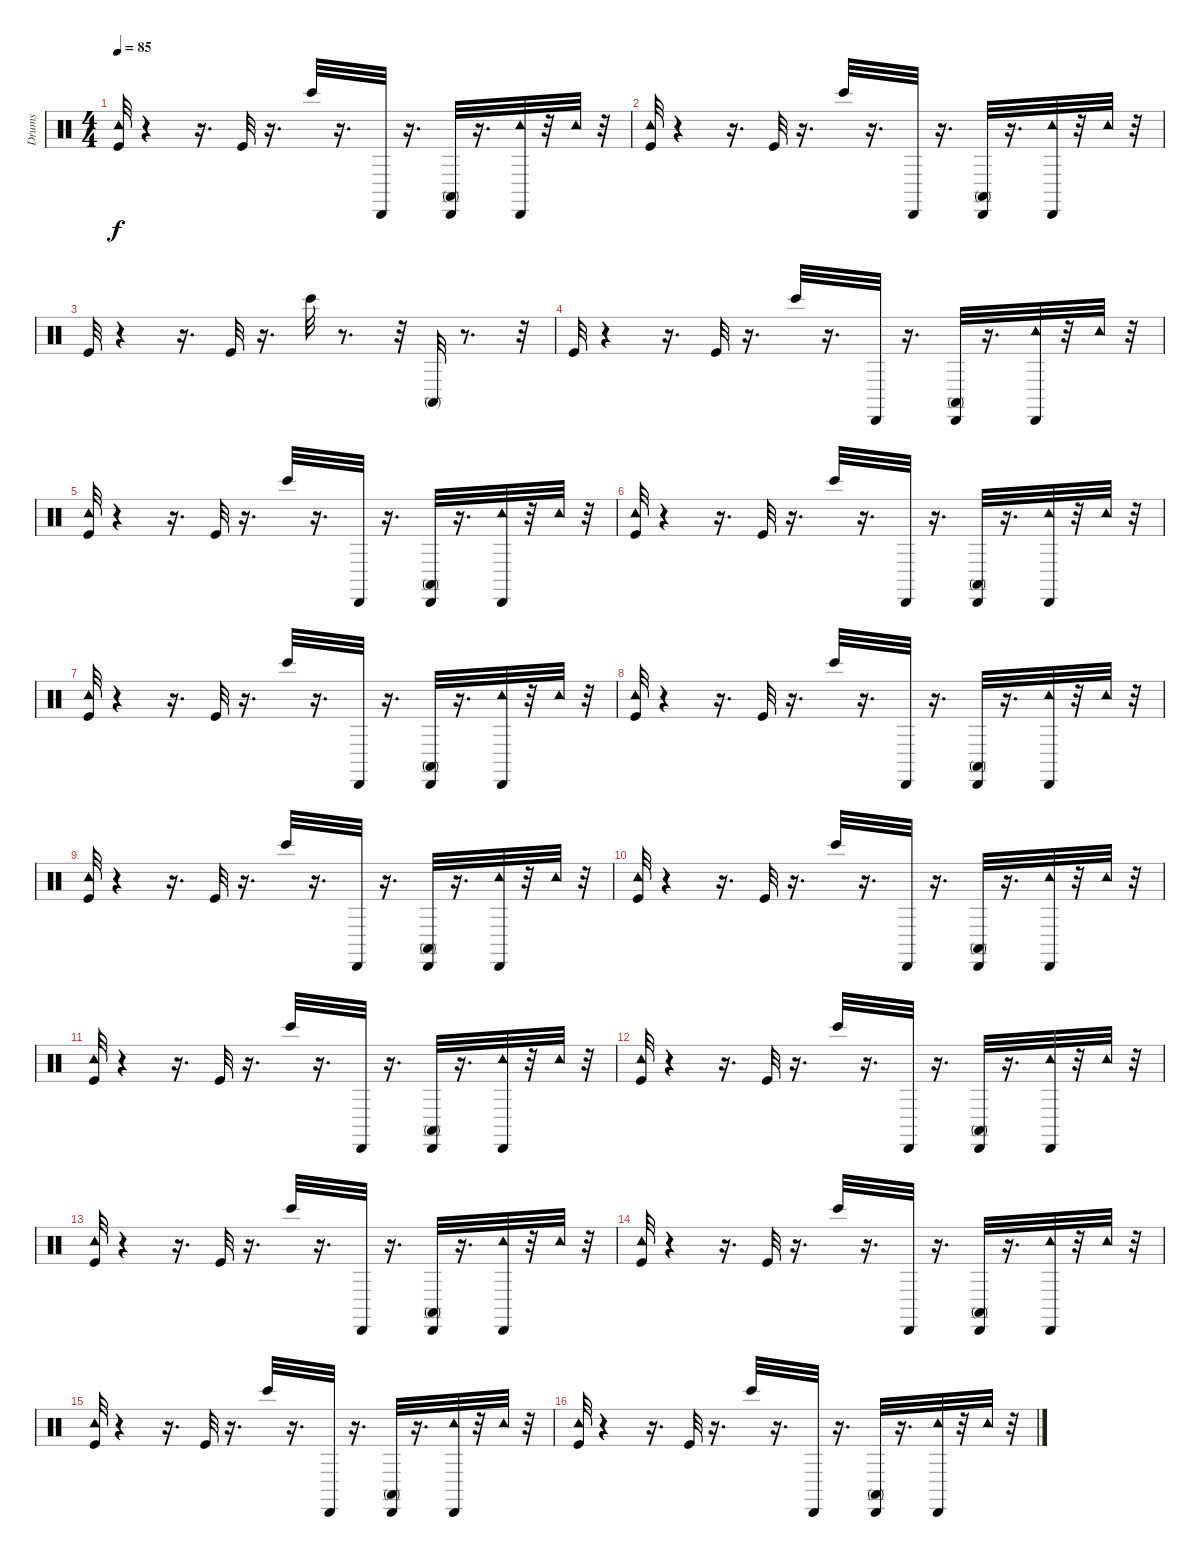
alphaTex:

\track ("Drums" "Drums") {instrument percussion}
\staff {score}
\articulation defaults
\ts (4 4)
\tempo 85
\clef neutral
\ks c
("Kick (hit)" "Tambourine (hit)").32{dy f} r.4 r.16{d} "Kick (hit)".32 r.16{d} "Bongo High (hit)".32 r.16{d} "Cabasa (hit)".32 r.16{d} ("Cabasa (hit)" "Conga high (mute)").32 r.16{d} ("Cabasa (hit)" "Tambourine (hit)").32 r.32 "Tambourine (hit)".32 r.32 |
("Kick (hit)" "Tambourine (hit)").32 r.4 r.16{d} "Kick (hit)".32 r.16{d} "Bongo High (hit)".32 r.16{d} "Cabasa (hit)".32 r.16{d} ("Cabasa (hit)" "Conga high (mute)").32 r.16{d} ("Cabasa (hit)" "Tambourine (hit)").32 r.32 "Tambourine (hit)".32 r.32 |
"Kick (hit)".32 r.4 r.16{d} "Kick (hit)".32 r.16{d} "Bongo High (hit)".32 r.8{d} r.32 "Conga high (mute)".32 r.8{d} r.32 |
"Kick (hit)".32 r.4 r.16{d} "Kick (hit)".32 r.16{d} "Bongo High (hit)".32 r.16{d} "Cabasa (hit)".32 r.16{d} ("Cabasa (hit)" "Conga high (mute)").32 r.16{d} ("Cabasa (hit)" "Tambourine (hit)").32 r.32 "Tambourine (hit)".32 r.32 |
("Kick (hit)" "Tambourine (hit)").32 r.4 r.16{d} "Kick (hit)".32 r.16{d} "Bongo High (hit)".32 r.16{d} "Cabasa (hit)".32 r.16{d} ("Cabasa (hit)" "Conga high (mute)").32 r.16{d} ("Cabasa (hit)" "Tambourine (hit)").32 r.32 "Tambourine (hit)".32 r.32 |
("Kick (hit)" "Tambourine (hit)").32 r.4 r.16{d} "Kick (hit)".32 r.16{d} "Bongo High (hit)".32 r.16{d} "Cabasa (hit)".32 r.16{d} ("Cabasa (hit)" "Conga high (mute)").32 r.16{d} ("Cabasa (hit)" "Tambourine (hit)").32 r.32 "Tambourine (hit)".32 r.32 |
("Kick (hit)" "Tambourine (hit)").32 r.4 r.16{d} "Kick (hit)".32 r.16{d} "Bongo High (hit)".32 r.16{d} "Cabasa (hit)".32 r.16{d} ("Cabasa (hit)" "Conga high (mute)").32 r.16{d} ("Cabasa (hit)" "Tambourine (hit)").32 r.32 "Tambourine (hit)".32 r.32 |
("Kick (hit)" "Tambourine (hit)").32 r.4 r.16{d} "Kick (hit)".32 r.16{d} "Bongo High (hit)".32 r.16{d} "Cabasa (hit)".32 r.16{d} ("Cabasa (hit)" "Conga high (mute)").32 r.16{d} ("Cabasa (hit)" "Tambourine (hit)").32 r.32 "Tambourine (hit)".32 r.32 |
("Kick (hit)" "Tambourine (hit)").32 r.4 r.16{d} "Kick (hit)".32 r.16{d} "Bongo High (hit)".32 r.16{d} "Cabasa (hit)".32 r.16{d} ("Cabasa (hit)" "Conga high (mute)").32 r.16{d} ("Cabasa (hit)" "Tambourine (hit)").32 r.32 "Tambourine (hit)".32 r.32 |
("Kick (hit)" "Tambourine (hit)").32 r.4 r.16{d} "Kick (hit)".32 r.16{d} "Bongo High (hit)".32 r.16{d} "Cabasa (hit)".32 r.16{d} ("Cabasa (hit)" "Conga high (mute)").32 r.16{d} ("Cabasa (hit)" "Tambourine (hit)").32 r.32 "Tambourine (hit)".32 r.32 |
("Kick (hit)" "Tambourine (hit)").32 r.4 r.16{d} "Kick (hit)".32 r.16{d} "Bongo High (hit)".32 r.16{d} "Cabasa (hit)".32 r.16{d} ("Cabasa (hit)" "Conga high (mute)").32 r.16{d} ("Cabasa (hit)" "Tambourine (hit)").32 r.32 "Tambourine (hit)".32 r.32 |
("Kick (hit)" "Tambourine (hit)").32 r.4 r.16{d} "Kick (hit)".32 r.16{d} "Bongo High (hit)".32 r.16{d} "Cabasa (hit)".32 r.16{d} ("Cabasa (hit)" "Conga high (mute)").32 r.16{d} ("Cabasa (hit)" "Tambourine (hit)").32 r.32 "Tambourine (hit)".32 r.32 |
("Kick (hit)" "Tambourine (hit)").32 r.4 r.16{d} "Kick (hit)".32 r.16{d} "Bongo High (hit)".32 r.16{d} "Cabasa (hit)".32 r.16{d} ("Cabasa (hit)" "Conga high (mute)").32 r.16{d} ("Cabasa (hit)" "Tambourine (hit)").32 r.32 "Tambourine (hit)".32 r.32 |
("Kick (hit)" "Tambourine (hit)").32 r.4 r.16{d} "Kick (hit)".32 r.16{d} "Bongo High (hit)".32 r.16{d} "Cabasa (hit)".32 r.16{d} ("Cabasa (hit)" "Conga high (mute)").32 r.16{d} ("Cabasa (hit)" "Tambourine (hit)").32 r.32 "Tambourine (hit)".32 r.32 |
("Kick (hit)" "Tambourine (hit)").32 r.4 r.16{d} "Kick (hit)".32 r.16{d} "Bongo High (hit)".32 r.16{d} "Cabasa (hit)".32 r.16{d} ("Cabasa (hit)" "Conga high (mute)").32 r.16{d} ("Cabasa (hit)" "Tambourine (hit)").32 r.32 "Tambourine (hit)".32 r.32 |
("Kick (hit)" "Tambourine (hit)").32 r.4 r.16{d} "Kick (hit)".32 r.16{d} "Bongo High (hit)".32 r.16{d} "Cabasa (hit)".32 r.16{d} ("Cabasa (hit)" "Conga high (mute)").32 r.16{d} ("Cabasa (hit)" "Tambourine (hit)").32 r.32 "Tambourine (hit)".32 r.32
